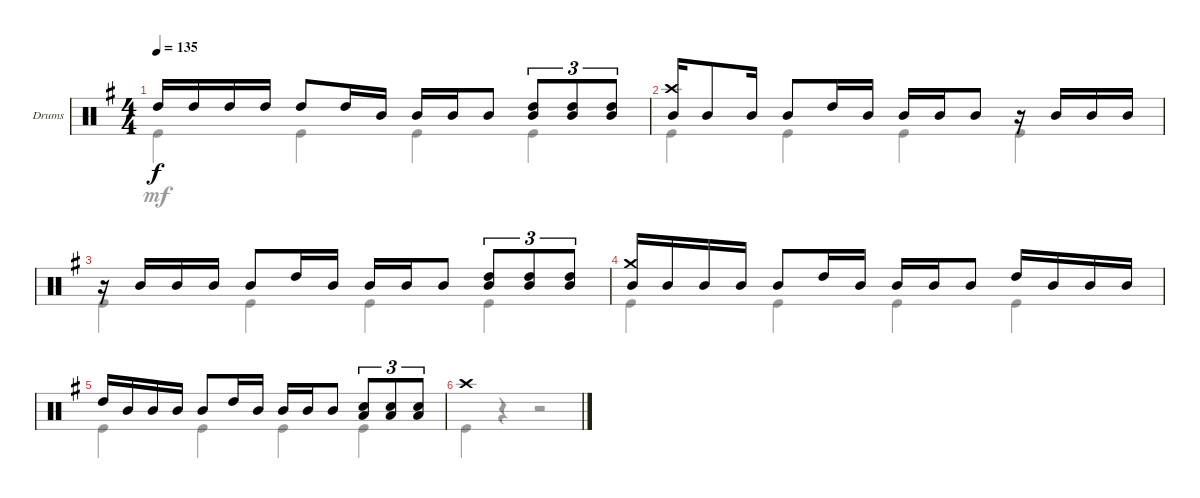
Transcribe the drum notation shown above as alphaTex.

\defaultSystemsLayout 4
\bracketExtendMode groupsimilarinstruments
\firstSystemTrackNameOrientation horizontal
\otherSystemsTrackNameOrientation horizontal
\track ("Drumkit" "Drums") {instrument percussion}
\staff {score}
\articulation defaults
\voice
\ts (4 4)
\tempo 135
\clef neutral
\ks g "High Tom (hit)".16{dy f} "High Tom (hit)".16 "High Tom (hit)".16 "High Tom (hit)".16 "High Tom (hit)".8 "High Tom (hit)".16 "Mid Tom (hit)".16 "Mid Tom (hit)".16 "Mid Tom (hit)".16 "Mid Tom (hit)".8
("Mid Tom (hit)" "High Tom (hit)").8{tu (3 2)} ("Mid Tom (hit)" "High Tom (hit)").8{tu (3 2)} ("Mid Tom (hit)" "High Tom (hit)").8{tu (3 2)} |
("Crash high (hit)" "Mid Tom (hit)").16 "Mid Tom (hit)".8 "Mid Tom (hit)".16 "Mid Tom (hit)".8 "High Tom (hit)".16 "Mid Tom (hit)".16 "Mid Tom (hit)".16 "Mid Tom (hit)".16 "Mid Tom (hit)".8 r.16 "Mid Tom (hit)".16 "Mid Tom (hit)".16 "Mid Tom (hit)".16 |
r.16 "Mid Tom (hit)".16 "Mid Tom (hit)".16 "Mid Tom (hit)".16 "Mid Tom (hit)".8 "High Tom (hit)".16 "Mid Tom (hit)".16 "Mid Tom (hit)".16 "Mid Tom (hit)".16 "Mid Tom (hit)".8 ("Mid Tom (hit)" "High Tom (hit)").8{tu (3 2)} ("Mid Tom (hit)" "High Tom (hit)").8{tu (3 2)} ("Mid Tom (hit)" "High Tom (hit)").8{tu (3 2)} |
("Crash medium (hit)" "Mid Tom (hit)").16 "Mid Tom (hit)".16 "Mid Tom (hit)".16 "Mid Tom (hit)".16 "Mid Tom (hit)".8 "High Tom (hit)".16 "Mid Tom (hit)".16 "Mid Tom (hit)".16 "Mid Tom (hit)".16 "Mid Tom (hit)".8 "High Tom (hit)".16 "Mid Tom (hit)".16 "Mid Tom (hit)".16 "Mid Tom (hit)".16 |
"High Tom (hit)".16 "Mid Tom (hit)".16 "Mid Tom (hit)".16 "Mid Tom (hit)".16 "Mid Tom (hit)".8 "High Tom (hit)".16 "Mid Tom (hit)".16 "Mid Tom (hit)".16 "Mid Tom (hit)".16 "Mid Tom (hit)".8 ("Snare (hit) 2" "Low Tom (hit)").8{tu (3 2)} ("Snare (hit) 2" "Low Tom (hit)").8{tu (3 2)} ("Snare (hit) 2" "Low Tom (hit)").8{tu (3 2)} |
"Crash high (hit)".1
\voice
\clef neutral
\ottava regular
\simile none
\ks g "Kick (hit)".4{dy mf} "Kick (hit)".4 "Kick (hit)".4 "Kick (hit)".4
|
"Kick (hit)".4 "Kick (hit)".4 "Kick (hit)".4 "Kick (hit)".4 |
"Kick (hit)".4 "Kick (hit)".4 "Kick (hit)".4 "Kick (hit)".4 |
"Kick (hit)".4 "Kick (hit)".4 "Kick (hit)".4 "Kick (hit)".4 |
"Kick (hit)".4 "Kick (hit)".4 "Kick (hit)".4 "Kick (hit)".4 |
"Kick (hit)".4 r.4 r.2
